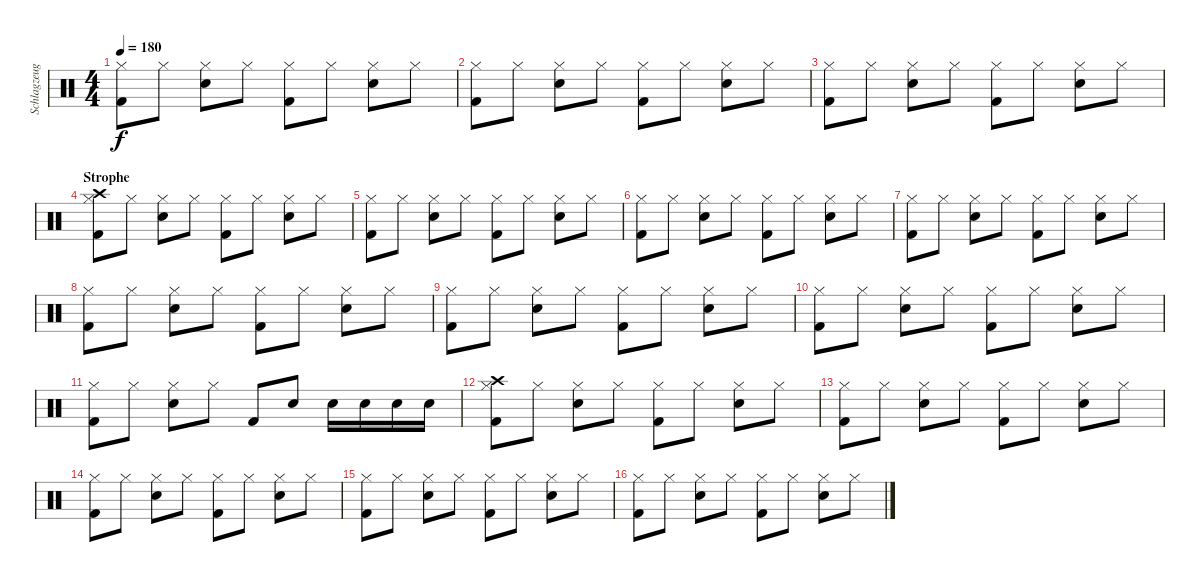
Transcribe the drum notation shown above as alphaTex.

\track ("Schlagzeug" "Schlagzeug") {instrument percussion}
\staff {score}
\articulation defaults
\ts (4 4)
\tempo 180
\clef neutral
\ks c
("Hi-Hat (closed)" "Kick (hit) 2").8{dy f} "Hi-Hat (closed)".8 ("Hi-Hat (closed)" "Snare (hit) 2").8 "Hi-Hat (closed)".8 ("Hi-Hat (closed)" "Kick (hit) 2").8 "Hi-Hat (closed)".8 ("Hi-Hat (closed)" "Snare (hit) 2").8 "Hi-Hat (closed)".8 |
("Hi-Hat (closed)" "Kick (hit) 2").8 "Hi-Hat (closed)".8 ("Hi-Hat (closed)" "Snare (hit) 2").8 "Hi-Hat (closed)".8 ("Hi-Hat (closed)" "Kick (hit) 2").8 "Hi-Hat (closed)".8 ("Hi-Hat (closed)" "Snare (hit) 2").8 "Hi-Hat (closed)".8 |
("Hi-Hat (closed)" "Kick (hit) 2").8 "Hi-Hat (closed)".8 ("Hi-Hat (closed)" "Snare (hit) 2").8 "Hi-Hat (closed)".8 ("Hi-Hat (closed)" "Kick (hit) 2").8 "Hi-Hat (closed)".8 ("Hi-Hat (closed)" "Snare (hit) 2").8 "Hi-Hat (closed)".8 |
\section ("" "Strophe")
("Crash high (hit)" "Hi-Hat (closed)" "Kick (hit) 2").8 "Hi-Hat (closed)".8 ("Hi-Hat (closed)" "Snare (hit) 2").8 "Hi-Hat (closed)".8 ("Hi-Hat (closed)" "Kick (hit) 2").8 "Hi-Hat (closed)".8 ("Hi-Hat (closed)" "Snare (hit) 2").8 "Hi-Hat (closed)".8 |
("Hi-Hat (closed)" "Kick (hit) 2").8 "Hi-Hat (closed)".8 ("Hi-Hat (closed)" "Snare (hit) 2").8 "Hi-Hat (closed)".8 ("Hi-Hat (closed)" "Kick (hit) 2").8 "Hi-Hat (closed)".8 ("Hi-Hat (closed)" "Snare (hit) 2").8 "Hi-Hat (closed)".8 |
("Hi-Hat (closed)" "Kick (hit) 2").8 "Hi-Hat (closed)".8 ("Hi-Hat (closed)" "Snare (hit) 2").8 "Hi-Hat (closed)".8 ("Hi-Hat (closed)" "Kick (hit) 2").8 "Hi-Hat (closed)".8 ("Hi-Hat (closed)" "Snare (hit) 2").8 "Hi-Hat (closed)".8 |
("Hi-Hat (closed)" "Kick (hit) 2").8 "Hi-Hat (closed)".8 ("Hi-Hat (closed)" "Snare (hit) 2").8 "Hi-Hat (closed)".8 ("Hi-Hat (closed)" "Kick (hit) 2").8 "Hi-Hat (closed)".8 ("Hi-Hat (closed)" "Snare (hit) 2").8 "Hi-Hat (closed)".8 |
("Hi-Hat (closed)" "Kick (hit) 2").8 "Hi-Hat (closed)".8 ("Hi-Hat (closed)" "Snare (hit) 2").8 "Hi-Hat (closed)".8 ("Hi-Hat (closed)" "Kick (hit) 2").8 "Hi-Hat (closed)".8 ("Hi-Hat (closed)" "Snare (hit) 2").8 "Hi-Hat (closed)".8 |
("Hi-Hat (closed)" "Kick (hit) 2").8 "Hi-Hat (closed)".8 ("Hi-Hat (closed)" "Snare (hit) 2").8 "Hi-Hat (closed)".8 ("Hi-Hat (closed)" "Kick (hit) 2").8 "Hi-Hat (closed)".8 ("Hi-Hat (closed)" "Snare (hit) 2").8 "Hi-Hat (closed)".8 |
("Hi-Hat (closed)" "Kick (hit) 2").8 "Hi-Hat (closed)".8 ("Hi-Hat (closed)" "Snare (hit) 2").8 "Hi-Hat (closed)".8 ("Hi-Hat (closed)" "Kick (hit) 2").8 "Hi-Hat (closed)".8 ("Hi-Hat (closed)" "Snare (hit) 2").8 "Hi-Hat (closed)".8 |
("Hi-Hat (closed)" "Kick (hit) 2").8 "Hi-Hat (closed)".8 ("Hi-Hat (closed)" "Snare (hit) 2").8 "Hi-Hat (closed)".8 "Kick (hit) 2".8 "Snare (hit) 2".8 "Snare (hit) 2".16 "Snare (hit) 2".16 "Snare (hit) 2".16 "Snare (hit) 2".16 |
("Hi-Hat (closed)" "Kick (hit) 2" "Crash high (hit)").8 "Hi-Hat (closed)".8 ("Hi-Hat (closed)" "Snare (hit) 2").8 "Hi-Hat (closed)".8 ("Hi-Hat (closed)" "Kick (hit) 2").8 "Hi-Hat (closed)".8 ("Hi-Hat (closed)" "Snare (hit) 2").8 "Hi-Hat (closed)".8 |
("Hi-Hat (closed)" "Kick (hit) 2").8 "Hi-Hat (closed)".8 ("Hi-Hat (closed)" "Snare (hit) 2").8 "Hi-Hat (closed)".8 ("Hi-Hat (closed)" "Kick (hit) 2").8 "Hi-Hat (closed)".8 ("Hi-Hat (closed)" "Snare (hit) 2").8 "Hi-Hat (closed)".8 |
("Hi-Hat (closed)" "Kick (hit) 2").8 "Hi-Hat (closed)".8 ("Hi-Hat (closed)" "Snare (hit) 2").8 "Hi-Hat (closed)".8 ("Hi-Hat (closed)" "Kick (hit) 2").8 "Hi-Hat (closed)".8 ("Hi-Hat (closed)" "Snare (hit) 2").8 "Hi-Hat (closed)".8 |
("Hi-Hat (closed)" "Kick (hit) 2").8 "Hi-Hat (closed)".8 ("Hi-Hat (closed)" "Snare (hit) 2").8 "Hi-Hat (closed)".8 ("Hi-Hat (closed)" "Kick (hit) 2").8 "Hi-Hat (closed)".8 ("Hi-Hat (closed)" "Snare (hit) 2").8 "Hi-Hat (closed)".8 |
("Hi-Hat (closed)" "Kick (hit) 2").8 "Hi-Hat (closed)".8 ("Hi-Hat (closed)" "Snare (hit) 2").8 "Hi-Hat (closed)".8 ("Hi-Hat (closed)" "Kick (hit) 2").8 "Hi-Hat (closed)".8 ("Hi-Hat (closed)" "Snare (hit) 2").8 "Hi-Hat (closed)".8
